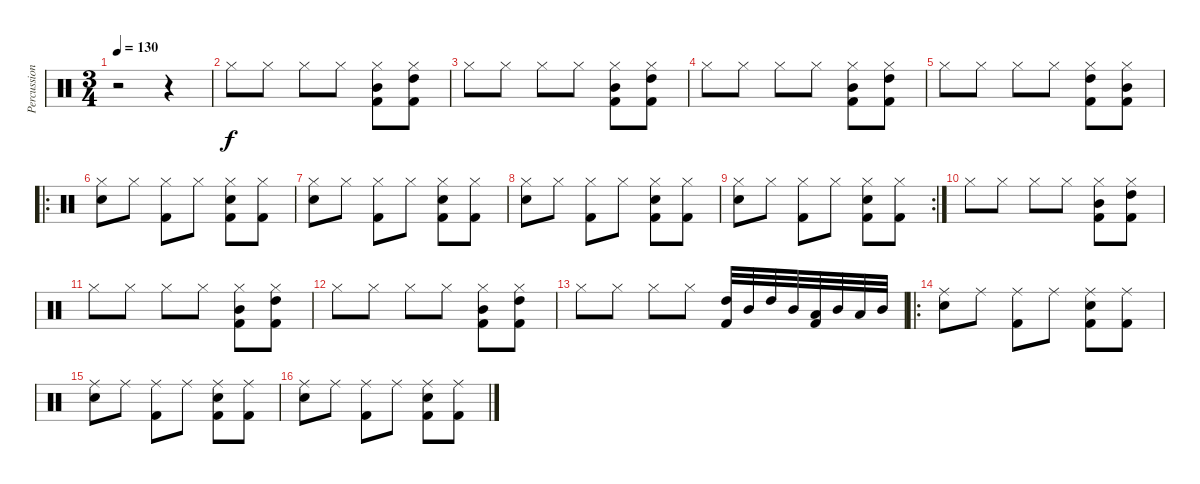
\track ("Percussion" "Percussion") {instrument percussion}
\staff {score}
\articulation defaults
\ts (3 4)
\tempo 130
\clef neutral
\ks c
r.2{dy f} r.4 |
"Hi-Hat (closed)".8 "Hi-Hat (closed)".8 "Hi-Hat (closed)".8 "Hi-Hat (closed)".8 ("Hi-Hat (closed)" "Mid Tom (hit)" "Kick (hit) 2").8 ("Hi-Hat (closed)" "High Tom (hit)" "Kick (hit) 2").8 |
"Hi-Hat (closed)".8 "Hi-Hat (closed)".8 "Hi-Hat (closed)".8 "Hi-Hat (closed)".8 ("Hi-Hat (closed)" "Mid Tom (hit)" "Kick (hit) 2").8 ("Hi-Hat (closed)" "High Tom (hit)" "Kick (hit) 2").8 |
"Hi-Hat (closed)".8 "Hi-Hat (closed)".8 "Hi-Hat (closed)".8 "Hi-Hat (closed)".8 ("Hi-Hat (closed)" "Mid Tom (hit)" "Kick (hit) 2").8 ("Hi-Hat (closed)" "High Tom (hit)" "Kick (hit) 2").8 |
"Hi-Hat (closed)".8 "Hi-Hat (closed)".8 "Hi-Hat (closed)".8 "Hi-Hat (closed)".8 ("Hi-Hat (closed)" "High Tom (hit)" "Kick (hit) 2").8 ("Hi-Hat (closed)" "Mid Tom (hit)" "Kick (hit) 2").8 |
\ro
("Hi-Hat (closed)" "Snare (hit) 2").8 "Hi-Hat (closed)".8 ("Hi-Hat (closed)" "Kick (hit) 2").8 "Hi-Hat (closed)".8 ("Hi-Hat (closed)" "Snare (hit) 2" "Kick (hit) 2").8 ("Hi-Hat (closed)" "Kick (hit) 2").8 |
("Hi-Hat (closed)" "Snare (hit) 2").8 "Hi-Hat (closed)".8 ("Hi-Hat (closed)" "Kick (hit) 2").8 "Hi-Hat (closed)".8 ("Hi-Hat (closed)" "Snare (hit) 2" "Kick (hit) 2").8 ("Hi-Hat (closed)" "Kick (hit) 2").8 |
("Hi-Hat (closed)" "Snare (hit) 2").8 "Hi-Hat (closed)".8 ("Hi-Hat (closed)" "Kick (hit) 2").8 "Hi-Hat (closed)".8 ("Hi-Hat (closed)" "Snare (hit) 2" "Kick (hit) 2").8 ("Hi-Hat (closed)" "Kick (hit) 2").8 |
\rc 2
("Hi-Hat (closed)" "Snare (hit) 2").8 "Hi-Hat (closed)".8 ("Hi-Hat (closed)" "Kick (hit) 2").8 "Hi-Hat (closed)".8 ("Hi-Hat (closed)" "Snare (hit) 2" "Kick (hit) 2").8 ("Hi-Hat (closed)" "Kick (hit) 2").8 |
"Hi-Hat (closed)".8 "Hi-Hat (closed)".8 "Hi-Hat (closed)".8 "Hi-Hat (closed)".8 ("Hi-Hat (closed)" "Mid Tom (hit)" "Kick (hit) 2").8 ("Hi-Hat (closed)" "High Tom (hit)" "Kick (hit) 2").8 |
"Hi-Hat (closed)".8 "Hi-Hat (closed)".8 "Hi-Hat (closed)".8 "Hi-Hat (closed)".8 ("Hi-Hat (closed)" "Mid Tom (hit)" "Kick (hit) 2").8 ("Hi-Hat (closed)" "High Tom (hit)" "Kick (hit) 2").8 |
"Hi-Hat (closed)".8 "Hi-Hat (closed)".8 "Hi-Hat (closed)".8 "Hi-Hat (closed)".8 ("Hi-Hat (closed)" "Mid Tom (hit)" "Kick (hit) 2").8 ("Hi-Hat (closed)" "High Tom (hit)" "Kick (hit) 2").8 |
"Hi-Hat (closed)".8 "Hi-Hat (closed)".8 "Hi-Hat (closed)".8 "Hi-Hat (closed)".8 ("High Tom (hit)" "Kick (hit) 2").32 "Mid Tom (hit)".32 "High Tom (hit)".32 "Mid Tom (hit)".32 ("Low Tom (hit)" "Kick (hit) 2").32 "Mid Tom (hit)".32 "Low Tom (hit)".32 "Mid Tom (hit)".32 |
\ro
("Ride (middle)" "Snare (hit) 2").8 "Ride (middle)".8 ("Ride (middle)" "Kick (hit) 2").8 "Ride (middle)".8 ("Ride (middle)" "Snare (hit) 2" "Kick (hit) 2").8 ("Ride (middle)" "Kick (hit) 2").8 |
("Ride (middle)" "Snare (hit) 2").8 "Ride (middle)".8 ("Ride (middle)" "Kick (hit) 2").8 "Ride (middle)".8 ("Ride (middle)" "Snare (hit) 2" "Kick (hit) 2").8 ("Ride (middle)" "Kick (hit) 2").8 |
("Ride (middle)" "Snare (hit) 2").8 "Ride (middle)".8 ("Ride (middle)" "Kick (hit) 2").8 "Ride (middle)".8 ("Ride (middle)" "Snare (hit) 2" "Kick (hit) 2").8 ("Ride (middle)" "Kick (hit) 2").8
